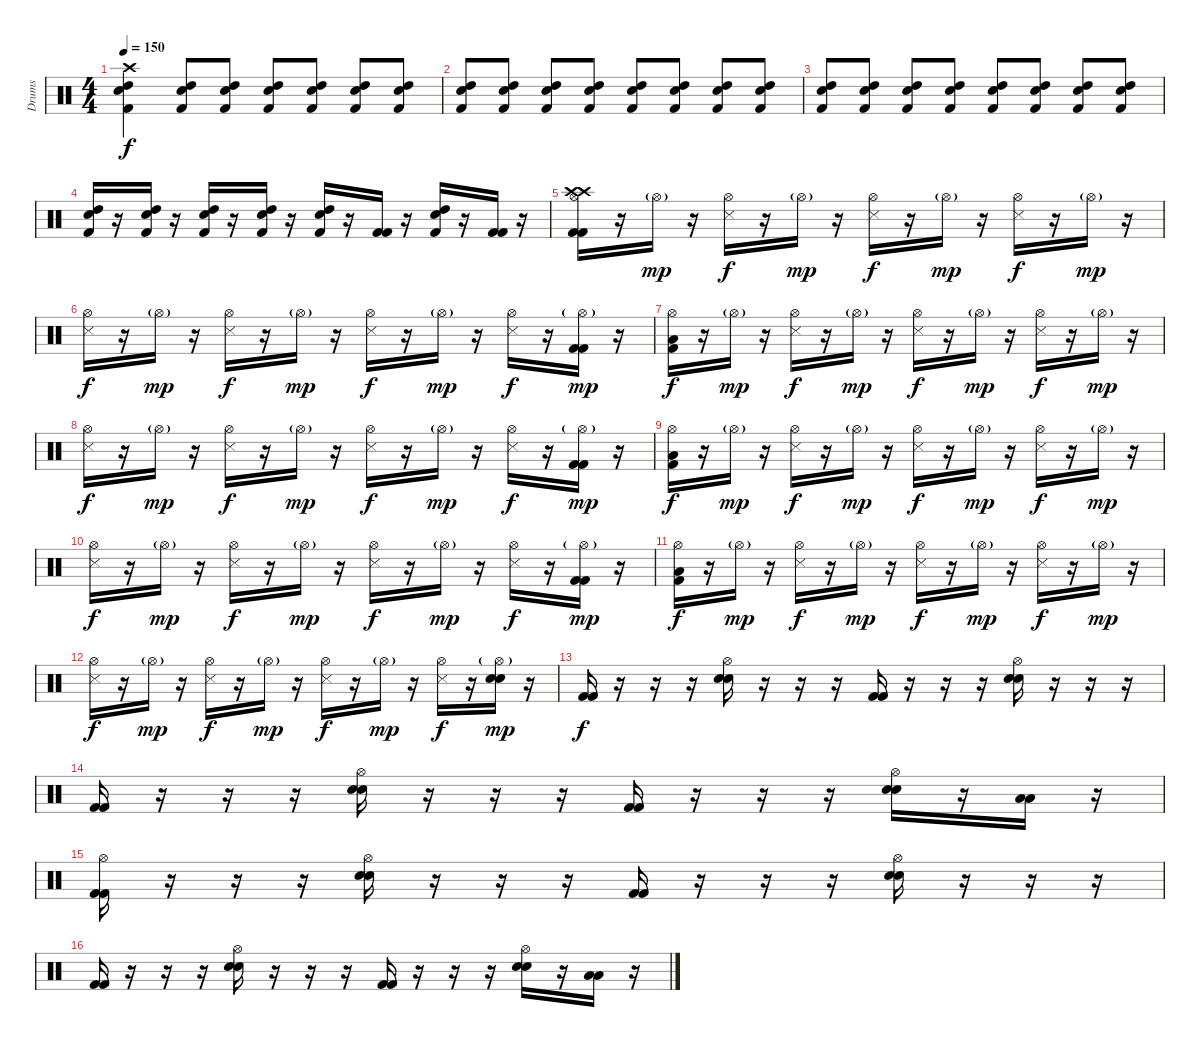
\track ("Drums" "Drums") {instrument percussion}
\staff {score}
\articulation defaults
\ts (4 4)
\tempo 150
\clef neutral
\ks c
("Crash high (hit)" "High Tom (hit)" "Electric Snare (hit)" "Kick (hit) 2").4{dy f} ("High Tom (hit)" "Electric Snare (hit)" "Kick (hit) 2").8 ("High Tom (hit)" "Electric Snare (hit)" "Kick (hit) 2").8 ("High Tom (hit)" "Electric Snare (hit)" "Kick (hit) 2").8 ("High Tom (hit)" "Electric Snare (hit)" "Kick (hit) 2").8 ("High Tom (hit)" "Electric Snare (hit)" "Kick (hit) 2").8 ("High Tom (hit)" "Electric Snare (hit)" "Kick (hit) 2").8 |
("High Tom (hit)" "Electric Snare (hit)" "Kick (hit) 2").8 ("High Tom (hit)" "Electric Snare (hit)" "Kick (hit) 2").8 ("High Tom (hit)" "Electric Snare (hit)" "Kick (hit) 2").8 ("High Tom (hit)" "Electric Snare (hit)" "Kick (hit) 2").8 ("High Tom (hit)" "Electric Snare (hit)" "Kick (hit) 2").8 ("High Tom (hit)" "Electric Snare (hit)" "Kick (hit) 2").8 ("High Tom (hit)" "Electric Snare (hit)" "Kick (hit) 2").8 ("High Tom (hit)" "Electric Snare (hit)" "Kick (hit) 2").8 |
("High Tom (hit)" "Electric Snare (hit)" "Kick (hit) 2").8 ("High Tom (hit)" "Electric Snare (hit)" "Kick (hit) 2").8 ("High Tom (hit)" "Electric Snare (hit)" "Kick (hit) 2").8 ("High Tom (hit)" "Electric Snare (hit)" "Kick (hit) 2").8 ("High Tom (hit)" "Electric Snare (hit)" "Kick (hit) 2").8 ("High Tom (hit)" "Electric Snare (hit)" "Kick (hit) 2").8 ("High Tom (hit)" "Electric Snare (hit)" "Kick (hit) 2").8 ("High Tom (hit)" "Electric Snare (hit)" "Kick (hit) 2").8 |
("High Tom (hit)" "Electric Snare (hit)" "Kick (hit) 2").16 r.16 ("High Tom (hit)" "Electric Snare (hit)" "Kick (hit) 2").16 r.16 ("High Tom (hit)" "Electric Snare (hit)" "Kick (hit) 2").16 r.16 ("High Tom (hit)" "Electric Snare (hit)" "Kick (hit) 2").16 r.16 ("High Tom (hit)" "Electric Snare (hit)" "Kick (hit) 2").16 r.16 ("Kick (hit) 2" "Kick (hit) 2").16 r.16 ("High Tom (hit)" "Electric Snare (hit)" "Kick (hit) 2").16 r.16 ("Kick (hit) 2" "Kick (hit) 2").16 r.16 |
("Crash high (hit)" "Crash high (hit)" "Hi-Hat (open)" "Kick (hit) 2" "Kick (hit) 2").16 r.16 "Hi-Hat (open)"{g}.16{dy mp} r.16 ("Hi-Hat (open)" "Snare (side stick) 3").16{dy f} r.16 "Hi-Hat (open)"{g}.16{dy mp} r.16 ("Hi-Hat (open)" "Snare (side stick) 3").16{dy f} r.16 "Hi-Hat (open)"{g}.16{dy mp} r.16 ("Hi-Hat (open)" "Snare (side stick) 3").16{dy f} r.16 "Hi-Hat (open)"{g}.16{dy mp} r.16 |
("Hi-Hat (open)" "Snare (side stick) 3").16{dy f} r.16 "Hi-Hat (open)"{g}.16{dy mp} r.16 ("Hi-Hat (open)" "Snare (side stick) 3").16{dy f} r.16 "Hi-Hat (open)"{g}.16{dy mp} r.16 ("Hi-Hat (open)" "Snare (side stick) 3").16{dy f} r.16 "Hi-Hat (open)"{g}.16{dy mp} r.16 ("Hi-Hat (open)" "Snare (side stick) 3").16{dy f} r.16 ("Hi-Hat (open)"{g} "Kick (hit) 2" "Kick (hit) 2").16{dy mp} r.16 |
("Hi-Hat (open)" "Low Tom (hit)" "Kick (hit) 2").16{dy f} r.16 "Hi-Hat (open)"{g}.16{dy mp} r.16 ("Hi-Hat (open)" "Snare (side stick) 3").16{dy f} r.16 "Hi-Hat (open)"{g}.16{dy mp} r.16 ("Hi-Hat (open)" "Snare (side stick) 3").16{dy f} r.16 "Hi-Hat (open)"{g}.16{dy mp} r.16 ("Hi-Hat (open)" "Snare (side stick) 3").16{dy f} r.16 "Hi-Hat (open)"{g}.16{dy mp} r.16 |
("Hi-Hat (open)" "Snare (side stick) 3").16{dy f} r.16 "Hi-Hat (open)"{g}.16{dy mp} r.16 ("Hi-Hat (open)" "Snare (side stick) 3").16{dy f} r.16 "Hi-Hat (open)"{g}.16{dy mp} r.16 ("Hi-Hat (open)" "Snare (side stick) 3").16{dy f} r.16 "Hi-Hat (open)"{g}.16{dy mp} r.16 ("Hi-Hat (open)" "Snare (side stick) 3").16{dy f} r.16 ("Hi-Hat (open)"{g} "Kick (hit) 2" "Kick (hit) 2").16{dy mp} r.16 |
("Hi-Hat (open)" "Low Tom (hit)" "Kick (hit) 2").16{dy f} r.16 "Hi-Hat (open)"{g}.16{dy mp} r.16 ("Hi-Hat (open)" "Snare (side stick) 3").16{dy f} r.16 "Hi-Hat (open)"{g}.16{dy mp} r.16 ("Hi-Hat (open)" "Snare (side stick) 3").16{dy f} r.16 "Hi-Hat (open)"{g}.16{dy mp} r.16 ("Hi-Hat (open)" "Snare (side stick) 3").16{dy f} r.16 "Hi-Hat (open)"{g}.16{dy mp} r.16 |
("Hi-Hat (open)" "Snare (side stick) 3").16{dy f} r.16 "Hi-Hat (open)"{g}.16{dy mp} r.16 ("Hi-Hat (open)" "Snare (side stick) 3").16{dy f} r.16 "Hi-Hat (open)"{g}.16{dy mp} r.16 ("Hi-Hat (open)" "Snare (side stick) 3").16{dy f} r.16 "Hi-Hat (open)"{g}.16{dy mp} r.16 ("Hi-Hat (open)" "Snare (side stick) 3").16{dy f} r.16 ("Hi-Hat (open)"{g} "Kick (hit) 2" "Kick (hit) 2").16{dy mp} r.16 |
("Hi-Hat (open)" "Low Tom (hit)" "Kick (hit) 2").16{dy f} r.16 "Hi-Hat (open)"{g}.16{dy mp} r.16 ("Hi-Hat (open)" "Snare (side stick) 3").16{dy f} r.16 "Hi-Hat (open)"{g}.16{dy mp} r.16 ("Hi-Hat (open)" "Snare (side stick) 3").16{dy f} r.16 "Hi-Hat (open)"{g}.16{dy mp} r.16 ("Hi-Hat (open)" "Snare (side stick) 3").16{dy f} r.16 "Hi-Hat (open)"{g}.16{dy mp} r.16 |
("Hi-Hat (open)" "Snare (side stick) 3").16{dy f} r.16 "Hi-Hat (open)"{g}.16{dy mp} r.16 ("Hi-Hat (open)" "Snare (side stick) 3").16{dy f} r.16 "Hi-Hat (open)"{g}.16{dy mp} r.16 ("Hi-Hat (open)" "Snare (side stick) 3").16{dy f} r.16 "Hi-Hat (open)"{g}.16{dy mp} r.16 ("Hi-Hat (open)" "Snare (side stick) 3").16{dy f} r.16 ("Hi-Hat (open)"{g} "Electric Snare (hit)" "Electric Snare (hit)").16{dy mp} r.16 |
("Kick (hit) 2" "Kick (hit) 2").16{dy f} r.16 r.16 r.16 ("Hi-Hat (open)" "Electric Snare (hit)" "Electric Snare (hit)").16 r.16 r.16 r.16 ("Kick (hit) 2" "Kick (hit) 2").16 r.16 r.16 r.16 ("Hi-Hat (open)" "Electric Snare (hit)" "Electric Snare (hit)").16 r.16 r.16 r.16 |
("Kick (hit) 2" "Kick (hit) 2").16 r.16 r.16 r.16 ("Hi-Hat (open)" "Electric Snare (hit)" "Electric Snare (hit)").16 r.16 r.16 r.16 ("Kick (hit) 2" "Kick (hit) 2").16 r.16 r.16 r.16 ("Hi-Hat (open)" "Electric Snare (hit)" "Electric Snare (hit)").16 r.16 ("Low Tom (hit)" "Low Tom (hit)").16 r.16 |
("Hi-Hat (open)" "Kick (hit) 2" "Kick (hit) 2").16 r.16 r.16 r.16 ("Hi-Hat (open)" "Electric Snare (hit)" "Electric Snare (hit)").16 r.16 r.16 r.16 ("Kick (hit) 2" "Kick (hit) 2").16 r.16 r.16 r.16 ("Hi-Hat (open)" "Electric Snare (hit)" "Electric Snare (hit)").16 r.16 r.16 r.16 |
("Kick (hit) 2" "Kick (hit) 2").16 r.16 r.16 r.16 ("Hi-Hat (open)" "Electric Snare (hit)" "Electric Snare (hit)").16 r.16 r.16 r.16 ("Kick (hit) 2" "Kick (hit) 2").16 r.16 r.16 r.16 ("Hi-Hat (open)" "Electric Snare (hit)" "Electric Snare (hit)").16 r.16 ("Low Tom (hit)" "Low Tom (hit)").16 r.16
